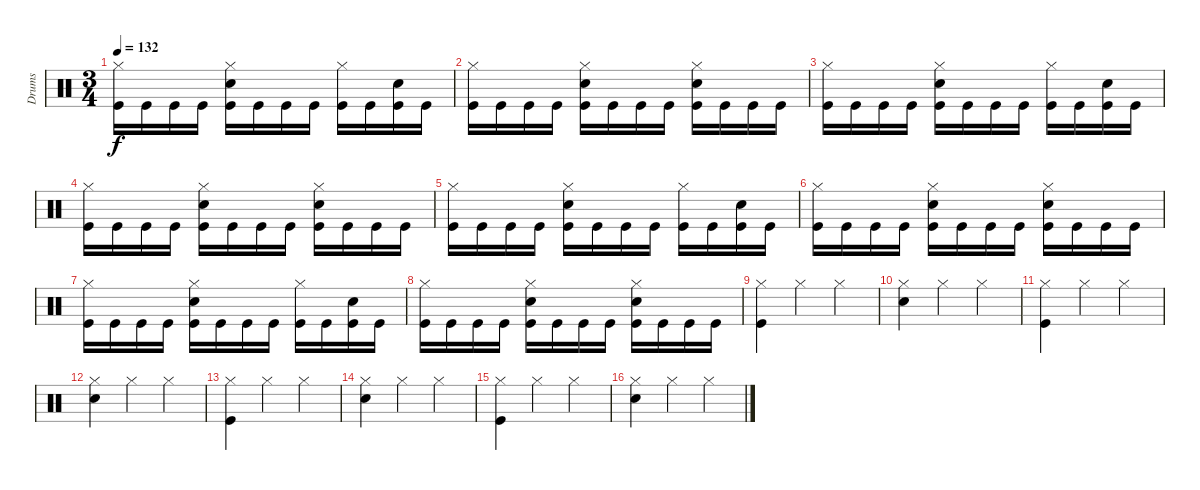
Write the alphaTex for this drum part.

\track ("Drums" "Drums") {instrument percussion}
\staff {score}
\articulation defaults
\ts (3 4)
\tempo 132
\clef neutral
\ks c
("Hi-Hat (closed)" "Kick (hit)").16{dy f} "Kick (hit)".16 "Kick (hit)".16 "Kick (hit)".16 ("Hi-Hat (closed)" "Kick (hit)" "Snare (hit) 2").16 "Kick (hit)".16 "Kick (hit)".16 "Kick (hit)".16 ("Hi-Hat (closed)" "Kick (hit)").16 "Kick (hit)".16 ("Kick (hit)" "Snare (hit) 2").16 "Kick (hit)".16 |
("Hi-Hat (closed)" "Kick (hit)").16 "Kick (hit)".16 "Kick (hit)".16 "Kick (hit)".16 ("Hi-Hat (closed)" "Kick (hit)" "Snare (hit) 2").16 "Kick (hit)".16 "Kick (hit)".16 "Kick (hit)".16 ("Hi-Hat (closed)" "Kick (hit)" "Snare (hit) 2").16 "Kick (hit)".16 "Kick (hit)".16 "Kick (hit)".16 |
("Hi-Hat (closed)" "Kick (hit)").16 "Kick (hit)".16 "Kick (hit)".16 "Kick (hit)".16 ("Hi-Hat (closed)" "Kick (hit)" "Snare (hit) 2").16 "Kick (hit)".16 "Kick (hit)".16 "Kick (hit)".16 ("Hi-Hat (closed)" "Kick (hit)").16 "Kick (hit)".16 ("Kick (hit)" "Snare (hit) 2").16 "Kick (hit)".16 |
("Hi-Hat (closed)" "Kick (hit)").16 "Kick (hit)".16 "Kick (hit)".16 "Kick (hit)".16 ("Hi-Hat (closed)" "Kick (hit)" "Snare (hit) 2").16 "Kick (hit)".16 "Kick (hit)".16 "Kick (hit)".16 ("Hi-Hat (closed)" "Kick (hit)" "Snare (hit) 2").16 "Kick (hit)".16 "Kick (hit)".16 "Kick (hit)".16 |
("Hi-Hat (closed)" "Kick (hit)").16 "Kick (hit)".16 "Kick (hit)".16 "Kick (hit)".16 ("Hi-Hat (closed)" "Kick (hit)" "Snare (hit) 2").16 "Kick (hit)".16 "Kick (hit)".16 "Kick (hit)".16 ("Hi-Hat (closed)" "Kick (hit)").16 "Kick (hit)".16 ("Kick (hit)" "Snare (hit) 2").16 "Kick (hit)".16 |
("Hi-Hat (closed)" "Kick (hit)").16 "Kick (hit)".16 "Kick (hit)".16 "Kick (hit)".16 ("Hi-Hat (closed)" "Kick (hit)" "Snare (hit) 2").16 "Kick (hit)".16 "Kick (hit)".16 "Kick (hit)".16 ("Hi-Hat (closed)" "Kick (hit)" "Snare (hit) 2").16 "Kick (hit)".16 "Kick (hit)".16 "Kick (hit)".16 |
("Hi-Hat (closed)" "Kick (hit)").16 "Kick (hit)".16 "Kick (hit)".16 "Kick (hit)".16 ("Hi-Hat (closed)" "Kick (hit)" "Snare (hit) 2").16 "Kick (hit)".16 "Kick (hit)".16 "Kick (hit)".16 ("Hi-Hat (closed)" "Kick (hit)").16 "Kick (hit)".16 ("Kick (hit)" "Snare (hit) 2").16 "Kick (hit)".16 |
("Hi-Hat (closed)" "Kick (hit)").16 "Kick (hit)".16 "Kick (hit)".16 "Kick (hit)".16 ("Hi-Hat (closed)" "Kick (hit)" "Snare (hit) 2").16 "Kick (hit)".16 "Kick (hit)".16 "Kick (hit)".16 ("Hi-Hat (closed)" "Kick (hit)" "Snare (hit) 2").16 "Kick (hit)".16 "Kick (hit)".16 "Kick (hit)".16 |
("Hi-Hat (closed)" "Kick (hit)").4 "Hi-Hat (closed)".4 "Hi-Hat (closed)".4 |
("Hi-Hat (closed)" "Snare (hit) 2").4 "Hi-Hat (closed)".4 "Hi-Hat (closed)".4 |
("Hi-Hat (closed)" "Kick (hit)").4 "Hi-Hat (closed)".4 "Hi-Hat (closed)".4 |
("Hi-Hat (closed)" "Snare (hit) 2").4 "Hi-Hat (closed)".4 "Hi-Hat (closed)".4 |
("Hi-Hat (closed)" "Kick (hit)").4 "Hi-Hat (closed)".4 "Hi-Hat (closed)".4 |
("Hi-Hat (closed)" "Snare (hit) 2").4 "Hi-Hat (closed)".4 "Hi-Hat (closed)".4 |
("Hi-Hat (closed)" "Kick (hit)").4 "Hi-Hat (closed)".4 "Hi-Hat (closed)".4 |
("Hi-Hat (closed)" "Snare (hit) 2").4 "Hi-Hat (closed)".4 "Hi-Hat (closed)".4
